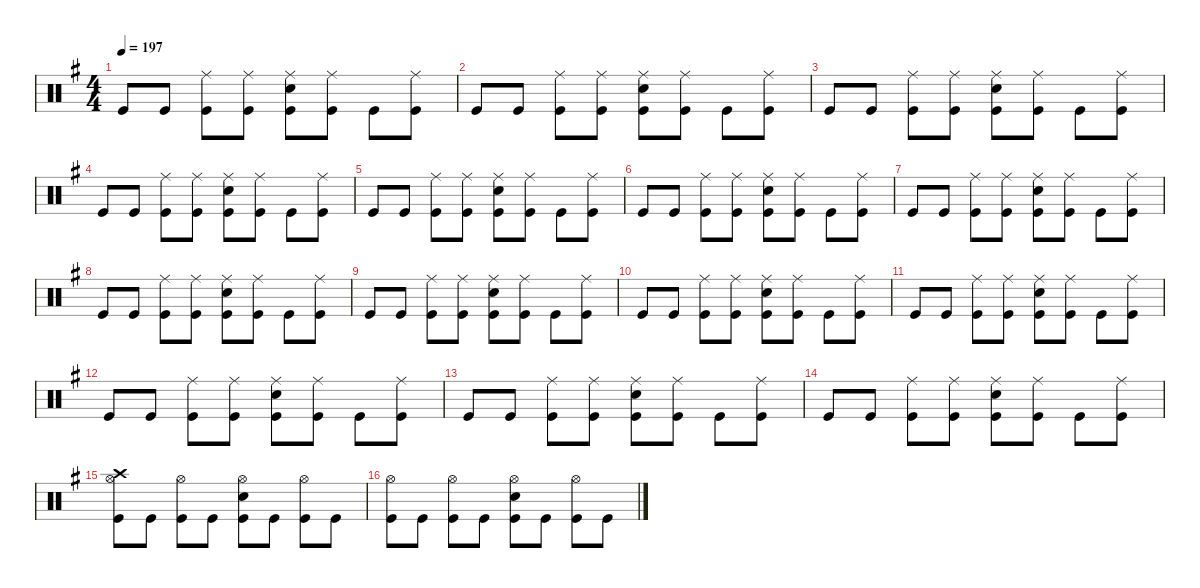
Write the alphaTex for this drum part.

\defaultSystemsLayout 4
\hideDynamics
\bracketExtendMode nobrackets
\singleTrackTrackNamePolicy hidden
\multiTrackTrackNamePolicy hidden
\firstSystemTrackNameMode fullname
\firstSystemTrackNameOrientation horizontal
\otherSystemsTrackNameOrientation horizontal
\track ("Drums" "drm.") {defaultSystemsLayout 4 instrument percussion}
\staff {score}
\articulation defaults
\ts (4 4)
\tempo 197
\clef neutral
\ks eminor "Kick (hit)"{acc forcenatural}.8{dy f beam Up} "Kick (hit)"{acc forcenatural}.8{beam Up}
("Ride (middle)"{acc forcenatural} "Kick (hit)"{acc forcenatural}).8{beam Down} ("Ride (middle)"{acc forcenatural} "Kick (hit)"{acc forcenatural}).8{beam Down} ("Ride (middle)"{acc forcenatural} "Snare (hit) 2"{acc forcenatural} "Kick (hit)"{acc forcenatural}).8{beam Down} ("Ride (middle)"{acc forcenatural} "Kick (hit)"{acc forcenatural}).8{beam Down} "Kick (hit)"{acc forcenatural}.8{beam Down} ("Ride (middle)"{acc forcenatural} "Kick (hit)"{acc forcenatural}).8{beam Down} |
"Kick (hit)"{acc forcenatural}.8{beam Up} "Kick (hit)"{acc forcenatural}.8{beam Up} ("Ride (middle)"{acc forcenatural} "Kick (hit)"{acc forcenatural}).8{beam Down} ("Ride (middle)"{acc forcenatural} "Kick (hit)"{acc forcenatural}).8{beam Down} ("Ride (middle)"{acc forcenatural} "Snare (hit) 2"{acc forcenatural} "Kick (hit)"{acc forcenatural}).8{beam Down} ("Ride (middle)"{acc forcenatural} "Kick (hit)"{acc forcenatural}).8{beam Down} "Kick (hit)"{acc forcenatural}.8{beam Down} ("Ride (middle)"{acc forcenatural} "Kick (hit)"{acc forcenatural}).8{beam Down} |
"Kick (hit)"{acc forcenatural}.8{beam Up} "Kick (hit)"{acc forcenatural}.8{beam Up} ("Ride (middle)"{acc forcenatural} "Kick (hit)"{acc forcenatural}).8{beam Down} ("Ride (middle)"{acc forcenatural} "Kick (hit)"{acc forcenatural}).8{beam Down} ("Ride (middle)"{acc forcenatural} "Snare (hit) 2"{acc forcenatural} "Kick (hit)"{acc forcenatural}).8{beam Down} ("Ride (middle)"{acc forcenatural} "Kick (hit)"{acc forcenatural}).8{beam Down} "Kick (hit)"{acc forcenatural}.8{beam Down} ("Ride (middle)"{acc forcenatural} "Kick (hit)"{acc forcenatural}).8{beam Down} |
"Kick (hit)"{acc forcenatural}.8{beam Up} "Kick (hit)"{acc forcenatural}.8{beam Up} ("Ride (middle)"{acc forcenatural} "Kick (hit)"{acc forcenatural}).8{beam Down} ("Ride (middle)"{acc forcenatural} "Kick (hit)"{acc forcenatural}).8{beam Down} ("Ride (middle)"{acc forcenatural} "Snare (hit) 2"{acc forcenatural} "Kick (hit)"{acc forcenatural}).8{beam Down} ("Ride (middle)"{acc forcenatural} "Kick (hit)"{acc forcenatural}).8{beam Down} "Kick (hit)"{acc forcenatural}.8{beam Down} ("Ride (middle)"{acc forcenatural} "Kick (hit)"{acc forcenatural}).8{beam Down} |
"Kick (hit)"{acc forcenatural}.8{beam Up} "Kick (hit)"{acc forcenatural}.8{beam Up} ("Ride (middle)"{acc forcenatural} "Kick (hit)"{acc forcenatural}).8{beam Down} ("Ride (middle)"{acc forcenatural} "Kick (hit)"{acc forcenatural}).8{beam Down} ("Ride (middle)"{acc forcenatural} "Snare (hit) 2"{acc forcenatural} "Kick (hit)"{acc forcenatural}).8{beam Down} ("Ride (middle)"{acc forcenatural} "Kick (hit)"{acc forcenatural}).8{beam Down} "Kick (hit)"{acc forcenatural}.8{beam Down} ("Ride (middle)"{acc forcenatural} "Kick (hit)"{acc forcenatural}).8{beam Down} |
"Kick (hit)"{acc forcenatural}.8{beam Up} "Kick (hit)"{acc forcenatural}.8{beam Up} ("Ride (middle)"{acc forcenatural} "Kick (hit)"{acc forcenatural}).8{beam Down} ("Ride (middle)"{acc forcenatural} "Kick (hit)"{acc forcenatural}).8{beam Down} ("Ride (middle)"{acc forcenatural} "Snare (hit) 2"{acc forcenatural} "Kick (hit)"{acc forcenatural}).8{beam Down} ("Ride (middle)"{acc forcenatural} "Kick (hit)"{acc forcenatural}).8{beam Down} "Kick (hit)"{acc forcenatural}.8{beam Down} ("Ride (middle)"{acc forcenatural} "Kick (hit)"{acc forcenatural}).8{beam Down} |
"Kick (hit)"{acc forcenatural}.8{beam Up} "Kick (hit)"{acc forcenatural}.8{beam Up} ("Ride (middle)"{acc forcenatural} "Kick (hit)"{acc forcenatural}).8{beam Down} ("Ride (middle)"{acc forcenatural} "Kick (hit)"{acc forcenatural}).8{beam Down} ("Ride (middle)"{acc forcenatural} "Snare (hit) 2"{acc forcenatural} "Kick (hit)"{acc forcenatural}).8{beam Down} ("Ride (middle)"{acc forcenatural} "Kick (hit)"{acc forcenatural}).8{beam Down} "Kick (hit)"{acc forcenatural}.8{beam Down} ("Ride (middle)"{acc forcenatural} "Kick (hit)"{acc forcenatural}).8{beam Down} |
"Kick (hit)"{acc forcenatural}.8{beam Up} "Kick (hit)"{acc forcenatural}.8{beam Up} ("Ride (middle)"{acc forcenatural} "Kick (hit)"{acc forcenatural}).8{beam Down} ("Ride (middle)"{acc forcenatural} "Kick (hit)"{acc forcenatural}).8{beam Down} ("Ride (middle)"{acc forcenatural} "Snare (hit) 2"{acc forcenatural} "Kick (hit)"{acc forcenatural}).8{beam Down} ("Ride (middle)"{acc forcenatural} "Kick (hit)"{acc forcenatural}).8{beam Down} "Kick (hit)"{acc forcenatural}.8{beam Down} ("Ride (middle)"{acc forcenatural} "Kick (hit)"{acc forcenatural}).8{beam Down} |
"Kick (hit)"{acc forcenatural}.8{beam Up} "Kick (hit)"{acc forcenatural}.8{beam Up} ("Ride (middle)"{acc forcenatural} "Kick (hit)"{acc forcenatural}).8{beam Down} ("Ride (middle)"{acc forcenatural} "Kick (hit)"{acc forcenatural}).8{beam Down} ("Ride (middle)"{acc forcenatural} "Snare (hit) 2"{acc forcenatural} "Kick (hit)"{acc forcenatural}).8{beam Down} ("Ride (middle)"{acc forcenatural} "Kick (hit)"{acc forcenatural}).8{beam Down} "Kick (hit)"{acc forcenatural}.8{beam Down} ("Ride (middle)"{acc forcenatural} "Kick (hit)"{acc forcenatural}).8{beam Down} |
"Kick (hit)"{acc forcenatural}.8{beam Up} "Kick (hit)"{acc forcenatural}.8{beam Up} ("Ride (middle)"{acc forcenatural} "Kick (hit)"{acc forcenatural}).8{beam Down} ("Ride (middle)"{acc forcenatural} "Kick (hit)"{acc forcenatural}).8{beam Down} ("Ride (middle)"{acc forcenatural} "Snare (hit) 2"{acc forcenatural} "Kick (hit)"{acc forcenatural}).8{beam Down} ("Ride (middle)"{acc forcenatural} "Kick (hit)"{acc forcenatural}).8{beam Down} "Kick (hit)"{acc forcenatural}.8{beam Down} ("Ride (middle)"{acc forcenatural} "Kick (hit)"{acc forcenatural}).8{beam Down} |
"Kick (hit)"{acc forcenatural}.8{beam Up} "Kick (hit)"{acc forcenatural}.8{beam Up} ("Ride (middle)"{acc forcenatural} "Kick (hit)"{acc forcenatural}).8{beam Down} ("Ride (middle)"{acc forcenatural} "Kick (hit)"{acc forcenatural}).8{beam Down} ("Ride (middle)"{acc forcenatural} "Snare (hit) 2"{acc forcenatural} "Kick (hit)"{acc forcenatural}).8{beam Down} ("Ride (middle)"{acc forcenatural} "Kick (hit)"{acc forcenatural}).8{beam Down} "Kick (hit)"{acc forcenatural}.8{beam Down} ("Ride (middle)"{acc forcenatural} "Kick (hit)"{acc forcenatural}).8{beam Down} |
"Kick (hit)"{acc forcenatural}.8{beam Up} "Kick (hit)"{acc forcenatural}.8{beam Up} ("Ride (middle)"{acc forcenatural} "Kick (hit)"{acc forcenatural}).8{beam Down} ("Ride (middle)"{acc forcenatural} "Kick (hit)"{acc forcenatural}).8{beam Down} ("Ride (middle)"{acc forcenatural} "Snare (hit) 2"{acc forcenatural} "Kick (hit)"{acc forcenatural}).8{beam Down} ("Ride (middle)"{acc forcenatural} "Kick (hit)"{acc forcenatural}).8{beam Down} "Kick (hit)"{acc forcenatural}.8{beam Down} ("Ride (middle)"{acc forcenatural} "Kick (hit)"{acc forcenatural}).8{beam Down} |
"Kick (hit)"{acc forcenatural}.8{beam Up} "Kick (hit)"{acc forcenatural}.8{beam Up} ("Ride (middle)"{acc forcenatural} "Kick (hit)"{acc forcenatural}).8{beam Down} ("Ride (middle)"{acc forcenatural} "Kick (hit)"{acc forcenatural}).8{beam Down} ("Ride (middle)"{acc forcenatural} "Snare (hit) 2"{acc forcenatural} "Kick (hit)"{acc forcenatural}).8{beam Down} ("Ride (middle)"{acc forcenatural} "Kick (hit)"{acc forcenatural}).8{beam Down} "Kick (hit)"{acc forcenatural}.8{beam Down} ("Ride (middle)"{acc forcenatural} "Kick (hit)"{acc forcenatural}).8{beam Down} |
"Kick (hit)"{acc forcenatural}.8{beam Up} "Kick (hit)"{acc forcenatural}.8{beam Up} ("Ride (middle)"{acc forcenatural} "Kick (hit)"{acc forcenatural}).8{beam Down} ("Ride (middle)"{acc forcenatural} "Kick (hit)"{acc forcenatural}).8{beam Down} ("Ride (middle)"{acc forcenatural} "Snare (hit) 2"{acc forcenatural} "Kick (hit)"{acc forcenatural}).8{beam Down} ("Ride (middle)"{acc forcenatural} "Kick (hit)"{acc forcenatural}).8{beam Down} "Kick (hit)"{acc forcenatural}.8{beam Down} ("Ride (middle)"{acc forcenatural} "Kick (hit)"{acc forcenatural}).8{beam Down} |
("Crash high (hit)"{acc forcenatural} "Hi-Hat (open)"{acc forcenatural} "Kick (hit)"{acc forcenatural}).8{beam Down} "Kick (hit)"{acc forcenatural}.8{beam Down} ("Hi-Hat (open)"{acc forcenatural} "Kick (hit)"{acc forcenatural}).8{beam Down} "Kick (hit)"{acc forcenatural}.8{beam Down} ("Hi-Hat (open)"{acc forcenatural} "Snare (hit) 2"{acc forcenatural} "Kick (hit)"{acc forcenatural}).8{beam Down} "Kick (hit)"{acc forcenatural}.8{beam Down} ("Hi-Hat (open)"{acc forcenatural} "Kick (hit)"{acc forcenatural}).8{beam Down} "Kick (hit)"{acc forcenatural}.8{beam Down} |
("Hi-Hat (open)"{acc forcenatural} "Kick (hit)"{acc forcenatural}).8{beam Down} "Kick (hit)"{acc forcenatural}.8{beam Down} ("Hi-Hat (open)"{acc forcenatural} "Kick (hit)"{acc forcenatural}).8{beam Down} "Kick (hit)"{acc forcenatural}.8{beam Down} ("Hi-Hat (open)"{acc forcenatural} "Snare (hit) 2"{acc forcenatural} "Kick (hit)"{acc forcenatural}).8{beam Down} "Kick (hit)"{acc forcenatural}.8{beam Down} ("Hi-Hat (open)"{acc forcenatural} "Kick (hit)"{acc forcenatural}).8{beam Down} "Kick (hit)"{acc forcenatural}.8{beam Down}
